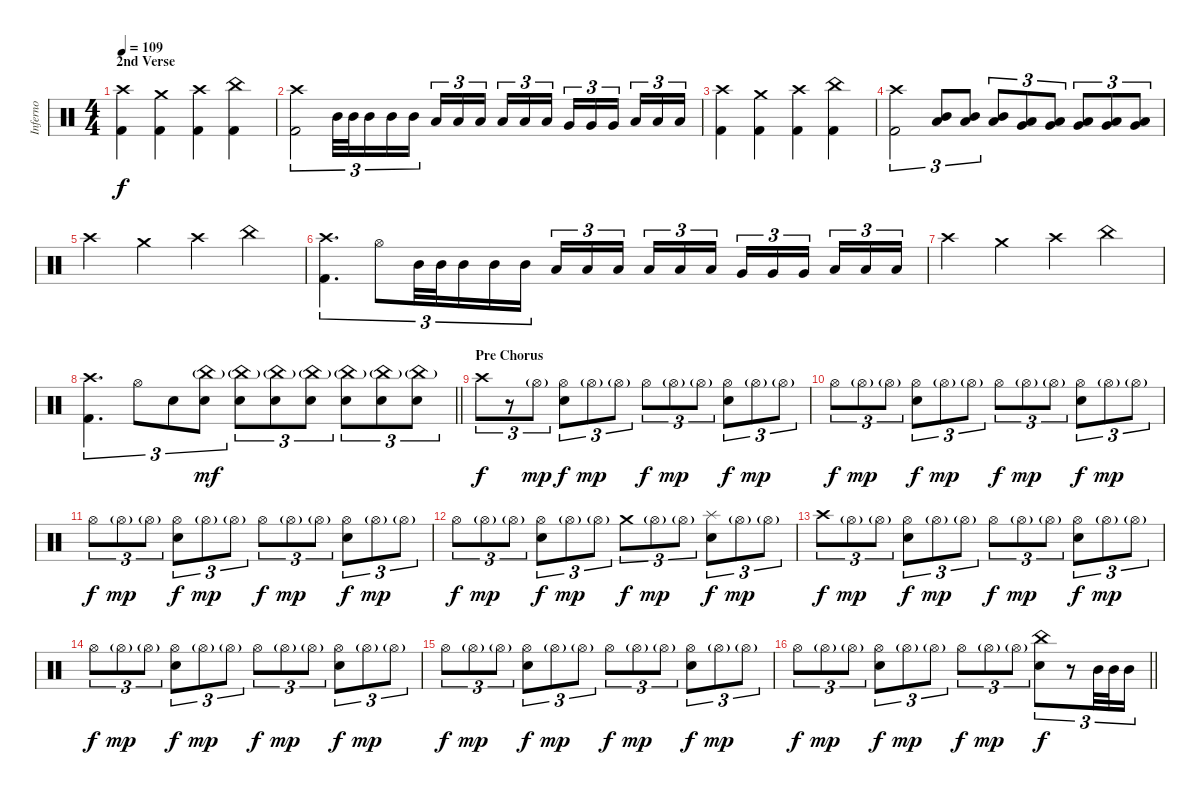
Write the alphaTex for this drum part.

\track ("Inferno" "Inferno") {instrument percussion}
\staff {score}
\articulation defaults
\ts (4 4)
\section ("" "2nd Verse")
\tempo 109
\clef neutral
\ks c
("Crash high (hit)" "Kick (hit) 2").4{dy f} ("Crash medium (hit)" "Kick (hit) 2").4 ("Crash high (hit)" "Kick (hit) 2").4 ("China (hit)" "Kick (hit) 2").4 |
("Crash high (hit)" "Kick (hit) 2").2{tu (3 2)} "Mid Tom (hit)".32{tu (3 2)} "Mid Tom (hit)".32{tu (3 2)} "Mid Tom (hit)".16{tu (3 2)} "Mid Tom (hit)".16{tu (3 2)} "Mid Tom (hit)".16{tu (3 2)} "Low Tom (hit)".16{tu (3 2)} "Low Tom (hit)".16{tu (3 2)} "Low Tom (hit)".16{tu (3 2) beam splitsecondary} "Low Tom (hit)".16{tu (3 2)} "Low Tom (hit)".16{tu (3 2)} "Low Tom (hit)".16{tu (3 2)} "Very Low Tom (hit)".16{tu (3 2)} "Very Low Tom (hit)".16{tu (3 2)} "Very Low Tom (hit)".16{tu (3 2) beam splitsecondary} "Low Floor Tom (hit)".16{tu (3 2)} "Low Floor Tom (hit)".16{tu (3 2)} "Low Floor Tom (hit)".16{tu (3 2)} |
("Crash high (hit)" "Kick (hit) 2").4 ("Crash medium (hit)" "Kick (hit) 2").4 ("Crash high (hit)" "Kick (hit) 2").4 ("China (hit)" "Kick (hit) 2").4 |
("Crash high (hit)" "Kick (hit) 2").2{tu (3 2)} ("Mid Tom (hit)" "Low Tom (hit)").8{tu (3 2)} ("Mid Tom (hit)" "Low Tom (hit)").8{tu (3 2)} ("Mid Tom (hit)" "Low Tom (hit)").8{tu (3 2)} ("Low Tom (hit)" "Very Low Tom (hit)").8{tu (3 2)} ("Low Tom (hit)" "Very Low Tom (hit)").8{tu (3 2)} ("Low Tom (hit)" "Very Low Tom (hit)").8{tu (3 2)} ("Very Low Tom (hit)" "Low Floor Tom (hit)").8{tu (3 2)} ("Very Low Tom (hit)" "Low Floor Tom (hit)").8{tu (3 2)} |
"Crash high (hit)".4 "Crash medium (hit)".4 "Crash high (hit)".4 "China (hit)".4 |
("Crash high (hit)" "Kick (hit) 2").4{d tu (3 2)} "Hi-Hat (open)".8{tu (3 2)} "Mid Tom (hit)".32{tu (3 2)} "Mid Tom (hit)".32{tu (3 2) beam splitsecondary} "Mid Tom (hit)".16{tu (3 2)} "Mid Tom (hit)".16{tu (3 2)} "Mid Tom (hit)".16{tu (3 2)} "Low Tom (hit)".16{tu (3 2)} "Low Tom (hit)".16{tu (3 2)} "Low Tom (hit)".16{tu (3 2) beam splitsecondary} "Low Tom (hit)".16{tu (3 2)} "Low Tom (hit)".16{tu (3 2)} "Low Tom (hit)".16{tu (3 2)} "Very Low Tom (hit)".16{tu (3 2)} "Very Low Tom (hit)".16{tu (3 2)} "Very Low Tom (hit)".16{tu (3 2) beam splitsecondary} "Low Floor Tom (hit)".16{tu (3 2)} "Low Floor Tom (hit)".16{tu (3 2)} "Low Floor Tom (hit)".16{tu (3 2)} |
"Crash high (hit)".4 "Crash medium (hit)".4 "Crash high (hit)".4 "China (hit)".4 |
\barLineRight lightlight
("Crash high (hit)" "Kick (hit) 2").4{d tu (3 2)} "Hi-Hat (open)".8{tu (3 2)} "Snare (hit) 2".8{tu (3 2)} ("China (hit)"{g} "Snare (hit) 2").8{tu (3 2) dy mf} ("China (hit)"{g} "Snare (hit) 2").8{tu (3 2)} ("China (hit)"{g} "Snare (hit) 2").8{tu (3 2)} ("China (hit)"{g} "Snare (hit) 2").8{tu (3 2)} ("China (hit)"{g} "Snare (hit) 2").8{tu (3 2)} ("China (hit)"{g} "Snare (hit) 2").8{tu (3 2)} ("China (hit)"{g} "Snare (hit) 2").8{tu (3 2)} |
\section ("" "Pre Chorus")
"Crash high (hit)".8{tu (3 2) dy f} r.8{tu (3 2)} "Hi-Hat (open)"{g}.8{tu (3 2) dy mp} ("Hi-Hat (open)" "Snare (hit) 2").8{tu (3 2) dy f} "Hi-Hat (open)"{g}.8{tu (3 2) dy mp} "Hi-Hat (open)"{g}.8{tu (3 2)} "Hi-Hat (open)".8{tu (3 2) dy f} "Hi-Hat (open)"{g}.8{tu (3 2) dy mp} "Hi-Hat (open)"{g}.8{tu (3 2)} ("Hi-Hat (open)" "Snare (hit) 2").8{tu (3 2) dy f} "Hi-Hat (open)"{g}.8{tu (3 2) dy mp} "Hi-Hat (open)"{g}.8{tu (3 2)} |
"Hi-Hat (open)".8{tu (3 2) dy f} "Hi-Hat (open)"{g}.8{tu (3 2) dy mp} "Hi-Hat (open)"{g}.8{tu (3 2)} ("Hi-Hat (open)" "Snare (hit) 2").8{tu (3 2) dy f} "Hi-Hat (open)"{g}.8{tu (3 2) dy mp} "Hi-Hat (open)"{g}.8{tu (3 2)} "Hi-Hat (open)".8{tu (3 2) dy f} "Hi-Hat (open)"{g}.8{tu (3 2) dy mp} "Hi-Hat (open)"{g}.8{tu (3 2)} ("Hi-Hat (open)" "Snare (hit) 2").8{tu (3 2) dy f} "Hi-Hat (open)"{g}.8{tu (3 2) dy mp} "Hi-Hat (open)"{g}.8{tu (3 2)} |
"Hi-Hat (open)".8{tu (3 2) dy f} "Hi-Hat (open)"{g}.8{tu (3 2) dy mp} "Hi-Hat (open)"{g}.8{tu (3 2)} ("Hi-Hat (open)" "Snare (hit) 2").8{tu (3 2) dy f} "Hi-Hat (open)"{g}.8{tu (3 2) dy mp} "Hi-Hat (open)"{g}.8{tu (3 2)} "Hi-Hat (open)".8{tu (3 2) dy f} "Hi-Hat (open)"{g}.8{tu (3 2) dy mp} "Hi-Hat (open)"{g}.8{tu (3 2)} ("Hi-Hat (open)" "Snare (hit) 2").8{tu (3 2) dy f} "Hi-Hat (open)"{g}.8{tu (3 2) dy mp} "Hi-Hat (open)"{g}.8{tu (3 2)} |
"Hi-Hat (open)".8{tu (3 2) dy f} "Hi-Hat (open)"{g}.8{tu (3 2) dy mp} "Hi-Hat (open)"{g}.8{tu (3 2)} ("Hi-Hat (open)" "Snare (hit) 2").8{tu (3 2) dy f} "Hi-Hat (open)"{g}.8{tu (3 2) dy mp} "Hi-Hat (open)"{g}.8{tu (3 2)} "Crash medium (hit)".8{tu (3 2) dy f} "Hi-Hat (open)"{g}.8{tu (3 2) dy mp} "Hi-Hat (open)"{g}.8{tu (3 2)} ("Splash (hit)" "Snare (hit) 2").8{tu (3 2) dy f} "Hi-Hat (open)"{g}.8{tu (3 2) dy mp} "Hi-Hat (open)"{g}.8{tu (3 2)} |
"Crash high (hit)".8{tu (3 2) dy f} "Hi-Hat (open)"{g}.8{tu (3 2) dy mp} "Hi-Hat (open)"{g}.8{tu (3 2)} ("Hi-Hat (open)" "Snare (hit) 2").8{tu (3 2) dy f} "Hi-Hat (open)"{g}.8{tu (3 2) dy mp} "Hi-Hat (open)"{g}.8{tu (3 2)} "Hi-Hat (open)".8{tu (3 2) dy f} "Hi-Hat (open)"{g}.8{tu (3 2) dy mp} "Hi-Hat (open)"{g}.8{tu (3 2)} ("Hi-Hat (open)" "Snare (hit) 2").8{tu (3 2) dy f} "Hi-Hat (open)"{g}.8{tu (3 2) dy mp} "Hi-Hat (open)"{g}.8{tu (3 2)} |
"Hi-Hat (open)".8{tu (3 2) dy f} "Hi-Hat (open)"{g}.8{tu (3 2) dy mp} "Hi-Hat (open)"{g}.8{tu (3 2)} ("Hi-Hat (open)" "Snare (hit) 2").8{tu (3 2) dy f} "Hi-Hat (open)"{g}.8{tu (3 2) dy mp} "Hi-Hat (open)"{g}.8{tu (3 2)} "Hi-Hat (open)".8{tu (3 2) dy f} "Hi-Hat (open)"{g}.8{tu (3 2) dy mp} "Hi-Hat (open)"{g}.8{tu (3 2)} ("Hi-Hat (open)" "Snare (hit) 2").8{tu (3 2) dy f} "Hi-Hat (open)"{g}.8{tu (3 2) dy mp} "Hi-Hat (open)"{g}.8{tu (3 2)} |
"Hi-Hat (open)".8{tu (3 2) dy f} "Hi-Hat (open)"{g}.8{tu (3 2) dy mp} "Hi-Hat (open)"{g}.8{tu (3 2)} ("Hi-Hat (open)" "Snare (hit) 2").8{tu (3 2) dy f} "Hi-Hat (open)"{g}.8{tu (3 2) dy mp} "Hi-Hat (open)"{g}.8{tu (3 2)} "Hi-Hat (open)".8{tu (3 2) dy f} "Hi-Hat (open)"{g}.8{tu (3 2) dy mp} "Hi-Hat (open)"{g}.8{tu (3 2)} ("Hi-Hat (open)" "Snare (hit) 2").8{tu (3 2) dy f} "Hi-Hat (open)"{g}.8{tu (3 2) dy mp} "Hi-Hat (open)"{g}.8{tu (3 2)} |
\barLineRight lightlight "Hi-Hat (open)".8{tu (3 2) dy f} "Hi-Hat (open)"{g}.8{tu (3 2) dy mp} "Hi-Hat (open)"{g}.8{tu (3 2)}
("Hi-Hat (open)" "Snare (hit) 2").8{tu (3 2) dy f} "Hi-Hat (open)"{g}.8{tu (3 2) dy mp} "Hi-Hat (open)"{g}.8{tu (3 2)} "Hi-Hat (open)".8{tu (3 2) dy f} "Hi-Hat (open)"{g}.8{tu (3 2) dy mp} "Hi-Hat (open)"{g}.8{tu (3 2)} ("China (hit)" "Snare (hit) 2").8{tu (3 2) dy f} r.8{tu (3 2)} "Mid Tom (hit)".32{tu (3 2)} "Mid Tom (hit)".32{tu (3 2)} "Mid Tom (hit)".16{tu (3 2)}
